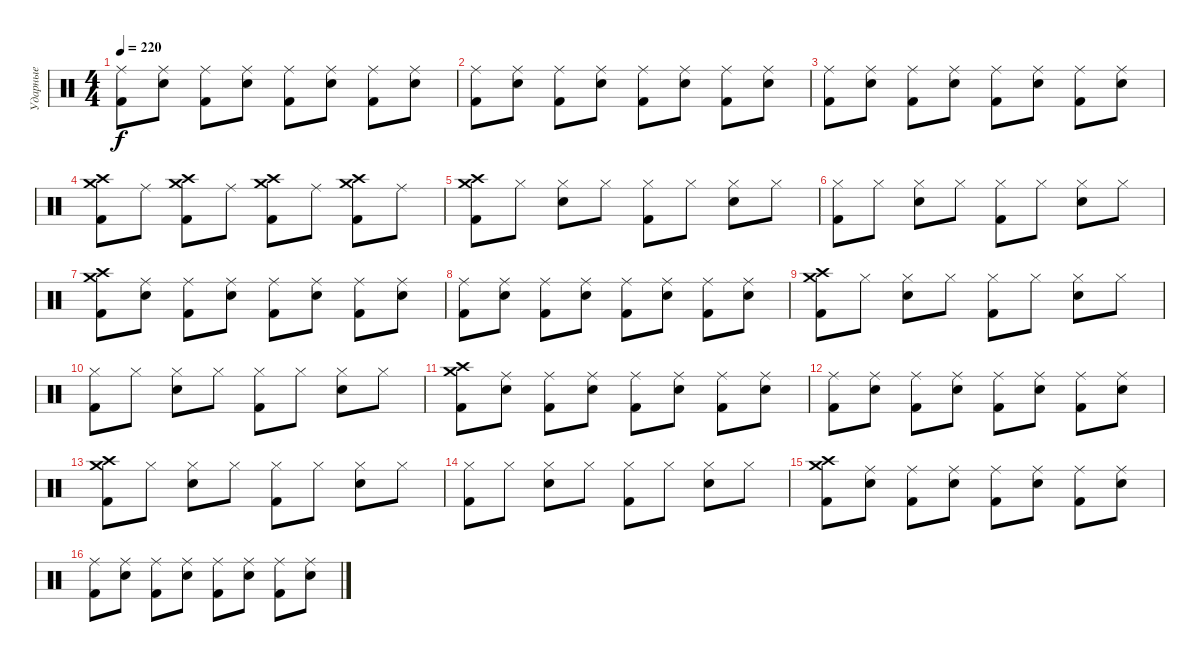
\track ("Ударные" "Ударные") {instrument percussion}
\staff {score}
\articulation defaults
\ts (4 4)
\tempo 220
\clef neutral
\ks c
("Ride (middle)" "Kick (hit) 2").8{dy f} ("Ride (middle)" "Snare (hit) 2").8 ("Ride (middle)" "Kick (hit) 2").8 ("Ride (middle)" "Snare (hit) 2").8 ("Ride (middle)" "Kick (hit) 2").8 ("Ride (middle)" "Snare (hit) 2").8 ("Ride (middle)" "Kick (hit) 2").8 ("Ride (middle)" "Snare (hit) 2").8 |
("Ride (middle)" "Kick (hit) 2").8 ("Ride (middle)" "Snare (hit) 2").8 ("Ride (middle)" "Kick (hit) 2").8 ("Ride (middle)" "Snare (hit) 2").8 ("Ride (middle)" "Kick (hit) 2").8 ("Ride (middle)" "Snare (hit) 2").8 ("Ride (middle)" "Kick (hit) 2").8 ("Ride (middle)" "Snare (hit) 2").8 |
("Ride (middle)" "Kick (hit) 2").8 ("Ride (middle)" "Snare (hit) 2").8 ("Ride (middle)" "Kick (hit) 2").8 ("Ride (middle)" "Snare (hit) 2").8 ("Ride (middle)" "Kick (hit) 2").8 ("Ride (middle)" "Snare (hit) 2").8 ("Ride (middle)" "Kick (hit) 2").8 ("Ride (middle)" "Snare (hit) 2").8 |
("Crash high (hit)" "Crash medium (hit)" "Kick (hit) 2").8 "Ride (middle)".8 ("Crash high (hit)" "Crash medium (hit)" "Kick (hit) 2").8 "Ride (middle)".8 ("Crash high (hit)" "Crash medium (hit)" "Kick (hit) 2").8 "Ride (middle)".8 ("Crash high (hit)" "Crash medium (hit)" "Kick (hit) 2").8 "Ride (middle)".8 |
("Crash high (hit)" "Crash medium (hit)" "Kick (hit) 2").8 "Hi-Hat (closed)".8 ("Hi-Hat (closed)" "Snare (hit) 2").8 "Hi-Hat (closed)".8 ("Hi-Hat (closed)" "Kick (hit) 2").8 "Hi-Hat (closed)".8 ("Hi-Hat (closed)" "Snare (hit) 2").8 "Hi-Hat (closed)".8 |
("Hi-Hat (closed)" "Kick (hit) 2").8 "Hi-Hat (closed)".8 ("Hi-Hat (closed)" "Snare (hit) 2").8 "Hi-Hat (closed)".8 ("Hi-Hat (closed)" "Kick (hit) 2").8 "Hi-Hat (closed)".8 ("Hi-Hat (closed)" "Snare (hit) 2").8 "Hi-Hat (closed)".8 |
("Crash high (hit)" "Crash medium (hit)" "Kick (hit) 2").8 ("Ride (middle)" "Snare (hit) 2").8 ("Ride (middle)" "Kick (hit) 2").8 ("Ride (middle)" "Snare (hit) 2").8 ("Ride (middle)" "Kick (hit) 2").8 ("Ride (middle)" "Snare (hit) 2").8 ("Ride (middle)" "Kick (hit) 2").8 ("Ride (middle)" "Snare (hit) 2").8 |
("Ride (middle)" "Kick (hit) 2").8 ("Ride (middle)" "Snare (hit) 2").8 ("Ride (middle)" "Kick (hit) 2").8 ("Ride (middle)" "Snare (hit) 2").8 ("Ride (middle)" "Kick (hit) 2").8 ("Ride (middle)" "Snare (hit) 2").8 ("Ride (middle)" "Kick (hit) 2").8 ("Ride (middle)" "Snare (hit) 2").8 |
("Crash high (hit)" "Crash medium (hit)" "Kick (hit) 2").8 "Hi-Hat (closed)".8 ("Hi-Hat (closed)" "Snare (hit) 2").8 "Hi-Hat (closed)".8 ("Hi-Hat (closed)" "Kick (hit) 2").8 "Hi-Hat (closed)".8 ("Hi-Hat (closed)" "Snare (hit) 2").8 "Hi-Hat (closed)".8 |
("Hi-Hat (closed)" "Kick (hit) 2").8 "Hi-Hat (closed)".8 ("Hi-Hat (closed)" "Snare (hit) 2").8 "Hi-Hat (closed)".8 ("Hi-Hat (closed)" "Kick (hit) 2").8 "Hi-Hat (closed)".8 ("Hi-Hat (closed)" "Snare (hit) 2").8 "Hi-Hat (closed)".8 |
("Crash high (hit)" "Crash medium (hit)" "Kick (hit) 2").8 ("Ride (middle)" "Snare (hit) 2").8 ("Ride (middle)" "Kick (hit) 2").8 ("Ride (middle)" "Snare (hit) 2").8 ("Ride (middle)" "Kick (hit) 2").8 ("Ride (middle)" "Snare (hit) 2").8 ("Ride (middle)" "Kick (hit) 2").8 ("Ride (middle)" "Snare (hit) 2").8 |
("Ride (middle)" "Kick (hit) 2").8 ("Ride (middle)" "Snare (hit) 2").8 ("Ride (middle)" "Kick (hit) 2").8 ("Ride (middle)" "Snare (hit) 2").8 ("Ride (middle)" "Kick (hit) 2").8 ("Ride (middle)" "Snare (hit) 2").8 ("Ride (middle)" "Kick (hit) 2").8 ("Ride (middle)" "Snare (hit) 2").8 |
("Crash high (hit)" "Crash medium (hit)" "Kick (hit) 2").8 "Hi-Hat (closed)".8 ("Hi-Hat (closed)" "Snare (hit) 2").8 "Hi-Hat (closed)".8 ("Hi-Hat (closed)" "Kick (hit) 2").8 "Hi-Hat (closed)".8 ("Hi-Hat (closed)" "Snare (hit) 2").8 "Hi-Hat (closed)".8 |
("Hi-Hat (closed)" "Kick (hit) 2").8 "Hi-Hat (closed)".8 ("Hi-Hat (closed)" "Snare (hit) 2").8 "Hi-Hat (closed)".8 ("Hi-Hat (closed)" "Kick (hit) 2").8 "Hi-Hat (closed)".8 ("Hi-Hat (closed)" "Snare (hit) 2").8 "Hi-Hat (closed)".8 |
("Crash high (hit)" "Crash medium (hit)" "Kick (hit) 2").8 ("Ride (middle)" "Snare (hit) 2").8 ("Ride (middle)" "Kick (hit) 2").8 ("Ride (middle)" "Snare (hit) 2").8 ("Ride (middle)" "Kick (hit) 2").8 ("Ride (middle)" "Snare (hit) 2").8 ("Ride (middle)" "Kick (hit) 2").8 ("Ride (middle)" "Snare (hit) 2").8 |
("Ride (middle)" "Kick (hit) 2").8 ("Ride (middle)" "Snare (hit) 2").8 ("Ride (middle)" "Kick (hit) 2").8 ("Ride (middle)" "Snare (hit) 2").8 ("Ride (middle)" "Kick (hit) 2").8 ("Ride (middle)" "Snare (hit) 2").8 ("Ride (middle)" "Kick (hit) 2").8 ("Ride (middle)" "Snare (hit) 2").8
